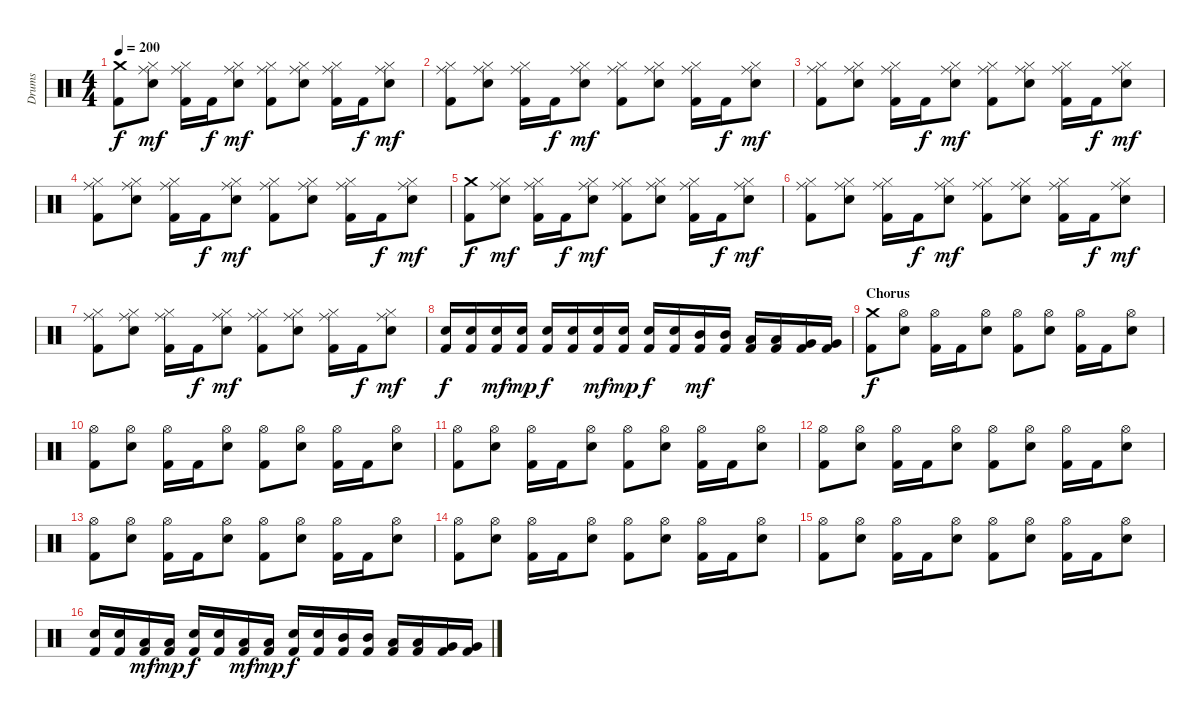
\track ("Drums" "Drums") {instrument percussion}
\staff {score}
\articulation defaults
\ts (4 4)
\tempo 200
\clef neutral
\ks c
("Crash medium (hit)" "Kick (hit) 2").8{dy f} ("Hi-Hat (closed)" "Ride (middle)" "Snare (hit) 2").8{dy mf} ("Hi-Hat (closed)" "Ride (middle)" "Kick (hit) 2").16 "Kick (hit) 2".16{dy f} ("Hi-Hat (closed)" "Ride (middle)" "Snare (hit) 2").8{dy mf} ("Hi-Hat (closed)" "Ride (middle)" "Kick (hit) 2").8 ("Hi-Hat (closed)" "Ride (middle)" "Snare (hit) 2").8 ("Hi-Hat (closed)" "Ride (middle)" "Kick (hit) 2").16 "Kick (hit) 2".16{dy f} ("Hi-Hat (closed)" "Ride (middle)" "Snare (hit) 2").8{dy mf} |
("Hi-Hat (closed)" "Ride (middle)" "Kick (hit) 2").8 ("Hi-Hat (closed)" "Ride (middle)" "Snare (hit) 2").8 ("Hi-Hat (closed)" "Ride (middle)" "Kick (hit) 2").16 "Kick (hit) 2".16{dy f} ("Hi-Hat (closed)" "Ride (middle)" "Snare (hit) 2").8{dy mf} ("Hi-Hat (closed)" "Ride (middle)" "Kick (hit) 2").8 ("Hi-Hat (closed)" "Ride (middle)" "Snare (hit) 2").8 ("Hi-Hat (closed)" "Ride (middle)" "Kick (hit) 2").16 "Kick (hit) 2".16{dy f} ("Hi-Hat (closed)" "Ride (middle)" "Snare (hit) 2").8{dy mf} |
("Hi-Hat (closed)" "Ride (middle)" "Kick (hit) 2").8 ("Hi-Hat (closed)" "Ride (middle)" "Snare (hit) 2").8 ("Hi-Hat (closed)" "Ride (middle)" "Kick (hit) 2").16 "Kick (hit) 2".16{dy f} ("Hi-Hat (closed)" "Ride (middle)" "Snare (hit) 2").8{dy mf} ("Hi-Hat (closed)" "Ride (middle)" "Kick (hit) 2").8 ("Hi-Hat (closed)" "Ride (middle)" "Snare (hit) 2").8 ("Hi-Hat (closed)" "Ride (middle)" "Kick (hit) 2").16 "Kick (hit) 2".16{dy f} ("Hi-Hat (closed)" "Ride (middle)" "Snare (hit) 2").8{dy mf} |
("Hi-Hat (closed)" "Ride (middle)" "Kick (hit) 2").8 ("Hi-Hat (closed)" "Ride (middle)" "Snare (hit) 2").8 ("Hi-Hat (closed)" "Ride (middle)" "Kick (hit) 2").16 "Kick (hit) 2".16{dy f} ("Hi-Hat (closed)" "Ride (middle)" "Snare (hit) 2").8{dy mf} ("Hi-Hat (closed)" "Ride (middle)" "Kick (hit) 2").8 ("Hi-Hat (closed)" "Ride (middle)" "Snare (hit) 2").8 ("Hi-Hat (closed)" "Ride (middle)" "Kick (hit) 2").16 "Kick (hit) 2".16{dy f} ("Hi-Hat (closed)" "Ride (middle)" "Snare (hit) 2").8{dy mf} |
("Crash medium (hit)" "Kick (hit) 2").8{dy f} ("Hi-Hat (closed)" "Ride (middle)" "Snare (hit) 2").8{dy mf} ("Hi-Hat (closed)" "Ride (middle)" "Kick (hit) 2").16 "Kick (hit) 2".16{dy f} ("Hi-Hat (closed)" "Ride (middle)" "Snare (hit) 2").8{dy mf} ("Hi-Hat (closed)" "Ride (middle)" "Kick (hit) 2").8 ("Hi-Hat (closed)" "Ride (middle)" "Snare (hit) 2").8 ("Hi-Hat (closed)" "Ride (middle)" "Kick (hit) 2").16 "Kick (hit) 2".16{dy f} ("Hi-Hat (closed)" "Ride (middle)" "Snare (hit) 2").8{dy mf} |
("Hi-Hat (closed)" "Ride (middle)" "Kick (hit) 2").8 ("Hi-Hat (closed)" "Ride (middle)" "Snare (hit) 2").8 ("Hi-Hat (closed)" "Ride (middle)" "Kick (hit) 2").16 "Kick (hit) 2".16{dy f} ("Hi-Hat (closed)" "Ride (middle)" "Snare (hit) 2").8{dy mf} ("Hi-Hat (closed)" "Ride (middle)" "Kick (hit) 2").8 ("Hi-Hat (closed)" "Ride (middle)" "Snare (hit) 2").8 ("Hi-Hat (closed)" "Ride (middle)" "Kick (hit) 2").16 "Kick (hit) 2".16{dy f} ("Hi-Hat (closed)" "Ride (middle)" "Snare (hit) 2").8{dy mf} |
("Hi-Hat (closed)" "Ride (middle)" "Kick (hit) 2").8 ("Hi-Hat (closed)" "Ride (middle)" "Snare (hit) 2").8 ("Hi-Hat (closed)" "Ride (middle)" "Kick (hit) 2").16 "Kick (hit) 2".16{dy f} ("Hi-Hat (closed)" "Ride (middle)" "Snare (hit) 2").8{dy mf} ("Hi-Hat (closed)" "Ride (middle)" "Kick (hit) 2").8 ("Hi-Hat (closed)" "Ride (middle)" "Snare (hit) 2").8 ("Hi-Hat (closed)" "Ride (middle)" "Kick (hit) 2").16 "Kick (hit) 2".16{dy f} ("Hi-Hat (closed)" "Ride (middle)" "Snare (hit) 2").8{dy mf} |
("Snare (hit) 2" "Kick (hit) 2").16{dy f} ("Snare (hit) 2" "Kick (hit) 2").16 ("Snare (hit) 2" "Kick (hit) 2").16{dy mf} ("Snare (hit) 2" "Kick (hit) 2").16{dy mp} ("Snare (hit) 2" "Kick (hit) 2").16{dy f} ("Snare (hit) 2" "Kick (hit) 2").16 ("Snare (hit) 2" "Kick (hit) 2").16{dy mf} ("Snare (hit) 2" "Kick (hit) 2").16{dy mp} ("Snare (hit) 2" "Kick (hit) 2").16{dy f} ("Snare (hit) 2" "Kick (hit) 2").16 ("Mid Tom (hit)" "Kick (hit) 2").16{dy mf} ("Mid Tom (hit)" "Kick (hit) 2").16 ("Low Tom (hit)" "Kick (hit) 2").16 ("Low Tom (hit)" "Kick (hit) 2").16 ("Very Low Tom (hit)" "Kick (hit) 2").16 ("Very Low Tom (hit)" "Kick (hit) 2").16 |
\section ("" "Chorus")
("Crash medium (hit)" "Kick (hit) 2").8{dy f} ("Hi-Hat (open)" "Snare (hit) 2").8 ("Hi-Hat (open)" "Kick (hit) 2").16 "Kick (hit) 2".16 ("Hi-Hat (open)" "Snare (hit) 2").8 ("Hi-Hat (open)" "Kick (hit) 2").8 ("Hi-Hat (open)" "Snare (hit) 2").8 ("Hi-Hat (open)" "Kick (hit) 2").16 "Kick (hit) 2".16 ("Hi-Hat (open)" "Snare (hit) 2").8 |
("Hi-Hat (open)" "Kick (hit) 2").8 ("Hi-Hat (open)" "Snare (hit) 2").8 ("Hi-Hat (open)" "Kick (hit) 2").16 "Kick (hit) 2".16 ("Hi-Hat (open)" "Snare (hit) 2").8 ("Hi-Hat (open)" "Kick (hit) 2").8 ("Hi-Hat (open)" "Snare (hit) 2").8 ("Hi-Hat (open)" "Kick (hit) 2").16 "Kick (hit) 2".16 ("Hi-Hat (open)" "Snare (hit) 2").8 |
("Hi-Hat (open)" "Kick (hit) 2").8 ("Hi-Hat (open)" "Snare (hit) 2").8 ("Hi-Hat (open)" "Kick (hit) 2").16 "Kick (hit) 2".16 ("Hi-Hat (open)" "Snare (hit) 2").8 ("Hi-Hat (open)" "Kick (hit) 2").8 ("Hi-Hat (open)" "Snare (hit) 2").8 ("Hi-Hat (open)" "Kick (hit) 2").16 "Kick (hit) 2".16 ("Hi-Hat (open)" "Snare (hit) 2").8 |
("Hi-Hat (open)" "Kick (hit) 2").8 ("Hi-Hat (open)" "Snare (hit) 2").8 ("Hi-Hat (open)" "Kick (hit) 2").16 "Kick (hit) 2".16 ("Hi-Hat (open)" "Snare (hit) 2").8 ("Hi-Hat (open)" "Kick (hit) 2").8 ("Hi-Hat (open)" "Snare (hit) 2").8 ("Hi-Hat (open)" "Kick (hit) 2").16 "Kick (hit) 2".16 ("Hi-Hat (open)" "Snare (hit) 2").8 |
("Hi-Hat (open)" "Kick (hit) 2").8 ("Hi-Hat (open)" "Snare (hit) 2").8 ("Hi-Hat (open)" "Kick (hit) 2").16 "Kick (hit) 2".16 ("Hi-Hat (open)" "Snare (hit) 2").8 ("Hi-Hat (open)" "Kick (hit) 2").8 ("Hi-Hat (open)" "Snare (hit) 2").8 ("Hi-Hat (open)" "Kick (hit) 2").16 "Kick (hit) 2".16 ("Hi-Hat (open)" "Snare (hit) 2").8 |
("Hi-Hat (open)" "Kick (hit) 2").8 ("Hi-Hat (open)" "Snare (hit) 2").8 ("Hi-Hat (open)" "Kick (hit) 2").16 "Kick (hit) 2".16 ("Hi-Hat (open)" "Snare (hit) 2").8 ("Hi-Hat (open)" "Kick (hit) 2").8 ("Hi-Hat (open)" "Snare (hit) 2").8 ("Hi-Hat (open)" "Kick (hit) 2").16 "Kick (hit) 2".16 ("Hi-Hat (open)" "Snare (hit) 2").8 |
("Hi-Hat (open)" "Kick (hit) 2").8 ("Hi-Hat (open)" "Snare (hit) 2").8 ("Hi-Hat (open)" "Kick (hit) 2").16 "Kick (hit) 2".16 ("Hi-Hat (open)" "Snare (hit) 2").8 ("Hi-Hat (open)" "Kick (hit) 2").8 ("Hi-Hat (open)" "Snare (hit) 2").8 ("Hi-Hat (open)" "Kick (hit) 2").16 "Kick (hit) 2".16 ("Hi-Hat (open)" "Snare (hit) 2").8 |
("Snare (hit) 2" "Kick (hit) 2").16 ("Snare (hit) 2" "Kick (hit) 2").16 ("Low Floor Tom (hit)" "Kick (hit) 2").16{dy mf} ("Low Floor Tom (hit)" "Kick (hit) 2").16{dy mp} ("Snare (hit) 2" "Kick (hit) 2").16{dy f} ("Snare (hit) 2" "Kick (hit) 2").16 ("Low Floor Tom (hit)" "Kick (hit) 2").16{dy mf} ("Low Floor Tom (hit)" "Kick (hit) 2").16{dy mp} ("Snare (hit) 2" "Kick (hit) 2").16{dy f} ("Snare (hit) 2" "Kick (hit) 2").16 ("Mid Tom (hit)" "Kick (hit) 2").16 ("Mid Tom (hit)" "Kick (hit) 2").16 ("Low Tom (hit)" "Kick (hit) 2").16 ("Low Tom (hit)" "Kick (hit) 2").16 ("Very Low Tom (hit)" "Kick (hit) 2").16 ("Very Low Tom (hit)" "Kick (hit) 2").16
